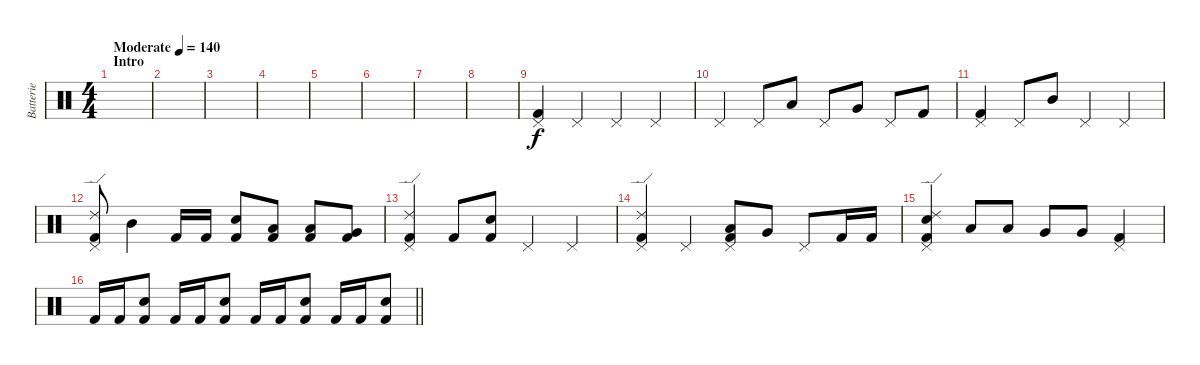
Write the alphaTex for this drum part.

\track ("Batterie" "Batterie") {instrument percussion}
\staff {score}
\articulation defaults
\ts (4 4)
\section ("" "Intro")
\tempo (140 "Moderate")
\clef neutral
\ks c
|
|
|
|
|
|
|
|
("Pedal Hi-Hat (hit)" "Kick (hit) 2").4 "Pedal Hi-Hat (hit)".4 "Pedal Hi-Hat (hit)".4 "Pedal Hi-Hat (hit)".4 |
"Pedal Hi-Hat (hit)".4 "Pedal Hi-Hat (hit)".8 "Low Floor Tom (hit)".8 "Pedal Hi-Hat (hit)".8 "Very Low Tom (hit)".8 "Pedal Hi-Hat (hit)".8 "Kick (hit) 2".8 |
("Pedal Hi-Hat (hit)" "Kick (hit) 2").4 "Pedal Hi-Hat (hit)".8 "Mid Tom (hit)".8 "Pedal Hi-Hat (hit)".4 "Pedal Hi-Hat (hit)".4 |
("Ride (edge) 2" "Pedal Hi-Hat (hit)" "Kick (hit) 2").8 "Mid Tom (hit)".4 "Kick (hit) 2".16 "Kick (hit) 2".16 ("Electric Snare (hit)" "Kick (hit) 2").8 ("Low Tom (hit)" "Kick (hit) 2").8 ("Low Tom (hit)" "Kick (hit) 2").8 ("Very Low Tom (hit)" "Kick (hit) 2").8 |
("Ride (edge) 2" "Pedal Hi-Hat (hit)" "Kick (hit) 2").4 "Kick (hit) 2".8 ("Electric Snare (hit)" "Kick (hit) 2").8 "Pedal Hi-Hat (hit)".4 "Pedal Hi-Hat (hit)".4 |
("Pedal Hi-Hat (hit)" "Ride (edge) 2" "Kick (hit) 2").4 "Pedal Hi-Hat (hit)".4 ("Pedal Hi-Hat (hit)" "Low Tom (hit)" "Kick (hit) 2").8 "Very Low Tom (hit)".8 "Pedal Hi-Hat (hit)".8 "Kick (hit) 2".16 "Kick (hit) 2".16 |
("Ride (edge) 2" "Pedal Hi-Hat (hit)" "Electric Snare (hit)" "Kick (hit) 2").4 "Low Tom (hit)".8 "Low Tom (hit)".8 "Very Low Tom (hit)".8 "Very Low Tom (hit)".8 ("Pedal Hi-Hat (hit)" "Kick (hit) 2").4 |
\barLineRight lightlight "Kick (hit) 2".16 "Kick (hit) 2".16
("Electric Snare (hit)" "Kick (hit) 2").8 "Kick (hit) 2".16 "Kick (hit) 2".16 ("Electric Snare (hit)" "Kick (hit) 2").8 "Kick (hit) 2".16 "Kick (hit) 2".16 ("Electric Snare (hit)" "Kick (hit) 2").8 "Kick (hit) 2".16 "Kick (hit) 2".16 ("Electric Snare (hit)" "Kick (hit) 2").8
